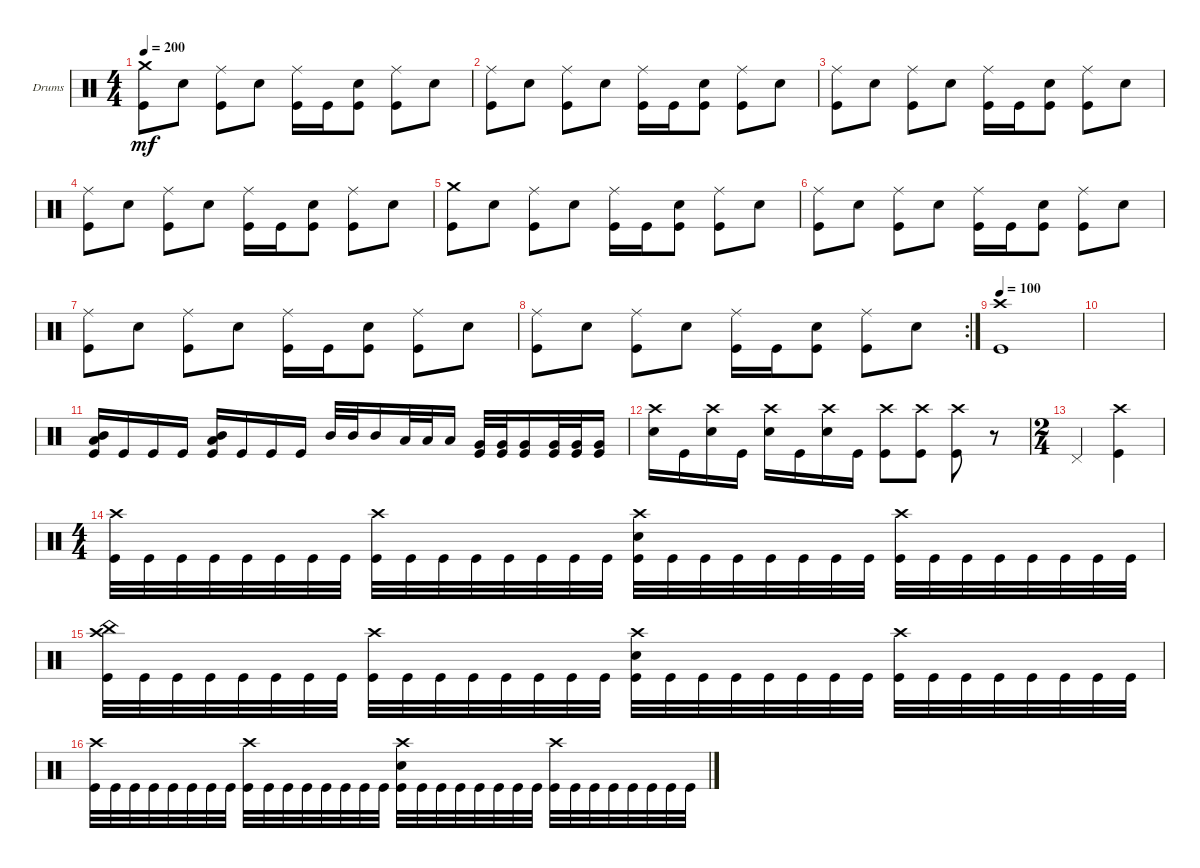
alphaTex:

\bracketExtendMode groupsimilarinstruments
\firstSystemTrackNameOrientation horizontal
\otherSystemsTrackNameOrientation horizontal
\track ("Drumkit" "Drums") {instrument percussion}
\staff {score}
\articulation defaults
\ts (4 4)
\tempo 200
\clef neutral
\ks c
("Kick (hit)" "Crash medium (hit)").8{dy mf} "Snare (hit) 2".8 ("Kick (hit)" "Ride (middle)").8 "Snare (hit) 2".8 ("Kick (hit)" "Ride (middle)").16 "Kick (hit)".16 ("Snare (hit) 2" "Kick (hit)").8 ("Kick (hit)" "Ride (middle)").8 "Snare (hit) 2".8 |
("Kick (hit)" "Ride (middle)").8 "Snare (hit) 2".8 ("Kick (hit)" "Ride (middle)").8 "Snare (hit) 2".8 ("Kick (hit)" "Ride (middle)").16 "Kick (hit)".16 ("Snare (hit) 2" "Kick (hit)").8 ("Kick (hit)" "Ride (middle)").8 "Snare (hit) 2".8 |
("Kick (hit)" "Ride (middle)").8 "Snare (hit) 2".8 ("Kick (hit)" "Ride (middle)").8 "Snare (hit) 2".8 ("Kick (hit)" "Ride (middle)").16 "Kick (hit)".16 ("Snare (hit) 2" "Kick (hit)").8 ("Kick (hit)" "Ride (middle)").8 "Snare (hit) 2".8 |
("Kick (hit)" "Ride (middle)").8 "Snare (hit) 2".8 ("Kick (hit)" "Ride (middle)").8 "Snare (hit) 2".8 ("Kick (hit)" "Ride (middle)").16 "Kick (hit)".16 ("Snare (hit) 2" "Kick (hit)").8 ("Kick (hit)" "Ride (middle)").8 "Snare (hit) 2".8 |
("Kick (hit)" "Crash medium (hit)").8 "Snare (hit) 2".8 ("Kick (hit)" "Ride (middle)").8 "Snare (hit) 2".8 ("Kick (hit)" "Ride (middle)").16 "Kick (hit)".16 ("Snare (hit) 2" "Kick (hit)").8 ("Kick (hit)" "Ride (middle)").8 "Snare (hit) 2".8 |
("Kick (hit)" "Ride (middle)").8 "Snare (hit) 2".8 ("Kick (hit)" "Ride (middle)").8 "Snare (hit) 2".8 ("Kick (hit)" "Ride (middle)").16 "Kick (hit)".16 ("Snare (hit) 2" "Kick (hit)").8 ("Kick (hit)" "Ride (middle)").8 "Snare (hit) 2".8 |
("Kick (hit)" "Ride (middle)").8 "Snare (hit) 2".8 ("Kick (hit)" "Ride (middle)").8 "Snare (hit) 2".8 ("Kick (hit)" "Ride (middle)").16 "Kick (hit)".16 ("Snare (hit) 2" "Kick (hit)").8 ("Kick (hit)" "Ride (middle)").8 "Snare (hit) 2".8 |
\rc 2
("Kick (hit)" "Ride (middle)").8 "Snare (hit) 2".8 ("Kick (hit)" "Ride (middle)").8 "Snare (hit) 2".8 ("Kick (hit)" "Ride (middle)").16 "Kick (hit)".16 ("Snare (hit) 2" "Kick (hit)").8 ("Kick (hit)" "Ride (middle)").8 "Snare (hit) 2".8 |
\tempo 100
("Kick (hit)" "Crash high (hit)").1 |
|
("Kick (hit)" "Low Tom (hit)" "Mid Tom (hit)").16 "Kick (hit)".16 "Kick (hit)".16 "Kick (hit)".16 ("Kick (hit)" "Low Tom (hit)" "Mid Tom (hit)").16 "Kick (hit)".16 "Kick (hit)".16 "Kick (hit)".16 "Mid Tom (hit)".32 "Mid Tom (hit)".32 "Mid Tom (hit)".16 "Low Tom (hit)".32 "Low Tom (hit)".32 "Low Tom (hit)".16 ("Very Low Tom (hit)" "Kick (hit)").32 ("Very Low Tom (hit)" "Kick (hit)").32 ("Very Low Tom (hit)" "Kick (hit)").16 ("Very Low Tom (hit)" "Kick (hit)").32 ("Very Low Tom (hit)" "Kick (hit)").32 ("Very Low Tom (hit)" "Kick (hit)").16 |
("Snare (hit) 2" "Crash high (hit)").16 "Kick (hit)".16 ("Snare (hit) 2" "Crash high (hit)").16 "Kick (hit)".16 ("Snare (hit) 2" "Crash high (hit)").16 "Kick (hit)".16 ("Snare (hit) 2" "Crash high (hit)").16 "Kick (hit)".16 ("Kick (hit)" "Crash high (hit)").8 ("Kick (hit)" "Crash high (hit)").8 ("Kick (hit)" "Crash high (hit)").8 r.8 |
\ts (2 4)
"Pedal Hi-Hat (hit)".4 ("Kick (hit)" "Crash high (hit)").4 |
\ts (4 4)
("Kick (hit)" "Crash high (hit)").32 "Kick (hit)".32 "Kick (hit)".32 "Kick (hit)".32 "Kick (hit)".32 "Kick (hit)".32 "Kick (hit)".32 "Kick (hit)".32 ("Kick (hit)" "Crash high (hit)").32 "Kick (hit)".32 "Kick (hit)".32 "Kick (hit)".32 "Kick (hit)".32 "Kick (hit)".32 "Kick (hit)".32 "Kick (hit)".32 ("Kick (hit)" "Crash high (hit)" "Snare (hit) 2").32 "Kick (hit)".32 "Kick (hit)".32 "Kick (hit)".32 "Kick (hit)".32 "Kick (hit)".32 "Kick (hit)".32 "Kick (hit)".32 ("Kick (hit)" "Crash high (hit)").32 "Kick (hit)".32 "Kick (hit)".32 "Kick (hit)".32 "Kick (hit)".32 "Kick (hit)".32 "Kick (hit)".32 "Kick (hit)".32 |
("Kick (hit)" "Crash high (hit)" "China (hit)").32 "Kick (hit)".32 "Kick (hit)".32 "Kick (hit)".32 "Kick (hit)".32 "Kick (hit)".32 "Kick (hit)".32 "Kick (hit)".32 ("Kick (hit)" "Crash high (hit)").32 "Kick (hit)".32 "Kick (hit)".32 "Kick (hit)".32 "Kick (hit)".32 "Kick (hit)".32 "Kick (hit)".32 "Kick (hit)".32 ("Kick (hit)" "Crash high (hit)" "Snare (hit) 2").32 "Kick (hit)".32 "Kick (hit)".32 "Kick (hit)".32 "Kick (hit)".32 "Kick (hit)".32 "Kick (hit)".32 "Kick (hit)".32 ("Kick (hit)" "Crash high (hit)").32 "Kick (hit)".32 "Kick (hit)".32 "Kick (hit)".32 "Kick (hit)".32 "Kick (hit)".32 "Kick (hit)".32 "Kick (hit)".32 |
("Kick (hit)" "Crash high (hit)").32 "Kick (hit)".32 "Kick (hit)".32 "Kick (hit)".32 "Kick (hit)".32 "Kick (hit)".32 "Kick (hit)".32 "Kick (hit)".32 ("Kick (hit)" "Crash high (hit)").32 "Kick (hit)".32 "Kick (hit)".32 "Kick (hit)".32 "Kick (hit)".32 "Kick (hit)".32 "Kick (hit)".32 "Kick (hit)".32 ("Kick (hit)" "Crash high (hit)" "Snare (hit) 2").32 "Kick (hit)".32 "Kick (hit)".32 "Kick (hit)".32 "Kick (hit)".32 "Kick (hit)".32 "Kick (hit)".32 "Kick (hit)".32 ("Kick (hit)" "Crash high (hit)").32 "Kick (hit)".32 "Kick (hit)".32 "Kick (hit)".32 "Kick (hit)".32 "Kick (hit)".32 "Kick (hit)".32 "Kick (hit)".32
